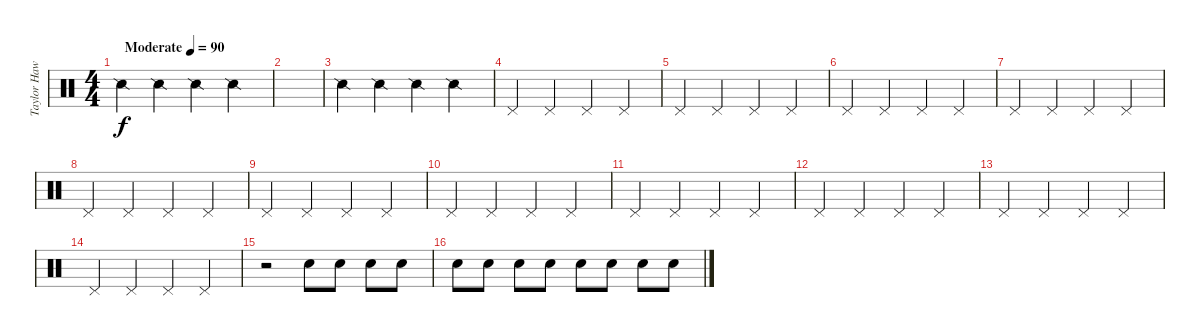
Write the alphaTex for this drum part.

\track ("Taylor Hawkins - Drums" "Taylor Haw") {instrument percussion}
\staff {score}
\articulation defaults
\ts (4 4)
\tempo (90 "Moderate")
\clef neutral
\ks c "Snare (side stick) 2".4{dy f} "Snare (side stick) 2".4 "Snare (side stick) 2".4 "Snare (side stick) 2".4
|
|
"Snare (side stick) 2".4 "Snare (side stick) 2".4 "Snare (side stick) 2".4 "Snare (side stick) 2".4 |
"Pedal Hi-Hat (hit)".4 "Pedal Hi-Hat (hit)".4 "Pedal Hi-Hat (hit)".4 "Pedal Hi-Hat (hit)".4 |
"Pedal Hi-Hat (hit)".4 "Pedal Hi-Hat (hit)".4 "Pedal Hi-Hat (hit)".4 "Pedal Hi-Hat (hit)".4 |
"Pedal Hi-Hat (hit)".4 "Pedal Hi-Hat (hit)".4 "Pedal Hi-Hat (hit)".4 "Pedal Hi-Hat (hit)".4 |
"Pedal Hi-Hat (hit)".4 "Pedal Hi-Hat (hit)".4 "Pedal Hi-Hat (hit)".4 "Pedal Hi-Hat (hit)".4 |
"Pedal Hi-Hat (hit)".4 "Pedal Hi-Hat (hit)".4 "Pedal Hi-Hat (hit)".4 "Pedal Hi-Hat (hit)".4 |
"Pedal Hi-Hat (hit)".4 "Pedal Hi-Hat (hit)".4 "Pedal Hi-Hat (hit)".4 "Pedal Hi-Hat (hit)".4 |
"Pedal Hi-Hat (hit)".4 "Pedal Hi-Hat (hit)".4 "Pedal Hi-Hat (hit)".4 "Pedal Hi-Hat (hit)".4 |
"Pedal Hi-Hat (hit)".4 "Pedal Hi-Hat (hit)".4 "Pedal Hi-Hat (hit)".4 "Pedal Hi-Hat (hit)".4 |
"Pedal Hi-Hat (hit)".4 "Pedal Hi-Hat (hit)".4 "Pedal Hi-Hat (hit)".4 "Pedal Hi-Hat (hit)".4 |
"Pedal Hi-Hat (hit)".4 "Pedal Hi-Hat (hit)".4 "Pedal Hi-Hat (hit)".4 "Pedal Hi-Hat (hit)".4 |
"Pedal Hi-Hat (hit)".4 "Pedal Hi-Hat (hit)".4 "Pedal Hi-Hat (hit)".4 "Pedal Hi-Hat (hit)".4 |
r.2 "Electric Snare (hit)".8 "Electric Snare (hit)".8 "Electric Snare (hit)".8 "Electric Snare (hit)".8 |
"Electric Snare (hit)".8 "Electric Snare (hit)".8 "Electric Snare (hit)".8 "Electric Snare (hit)".8 "Electric Snare (hit)".8 "Electric Snare (hit)".8 "Electric Snare (hit)".8 "Electric Snare (hit)".8
